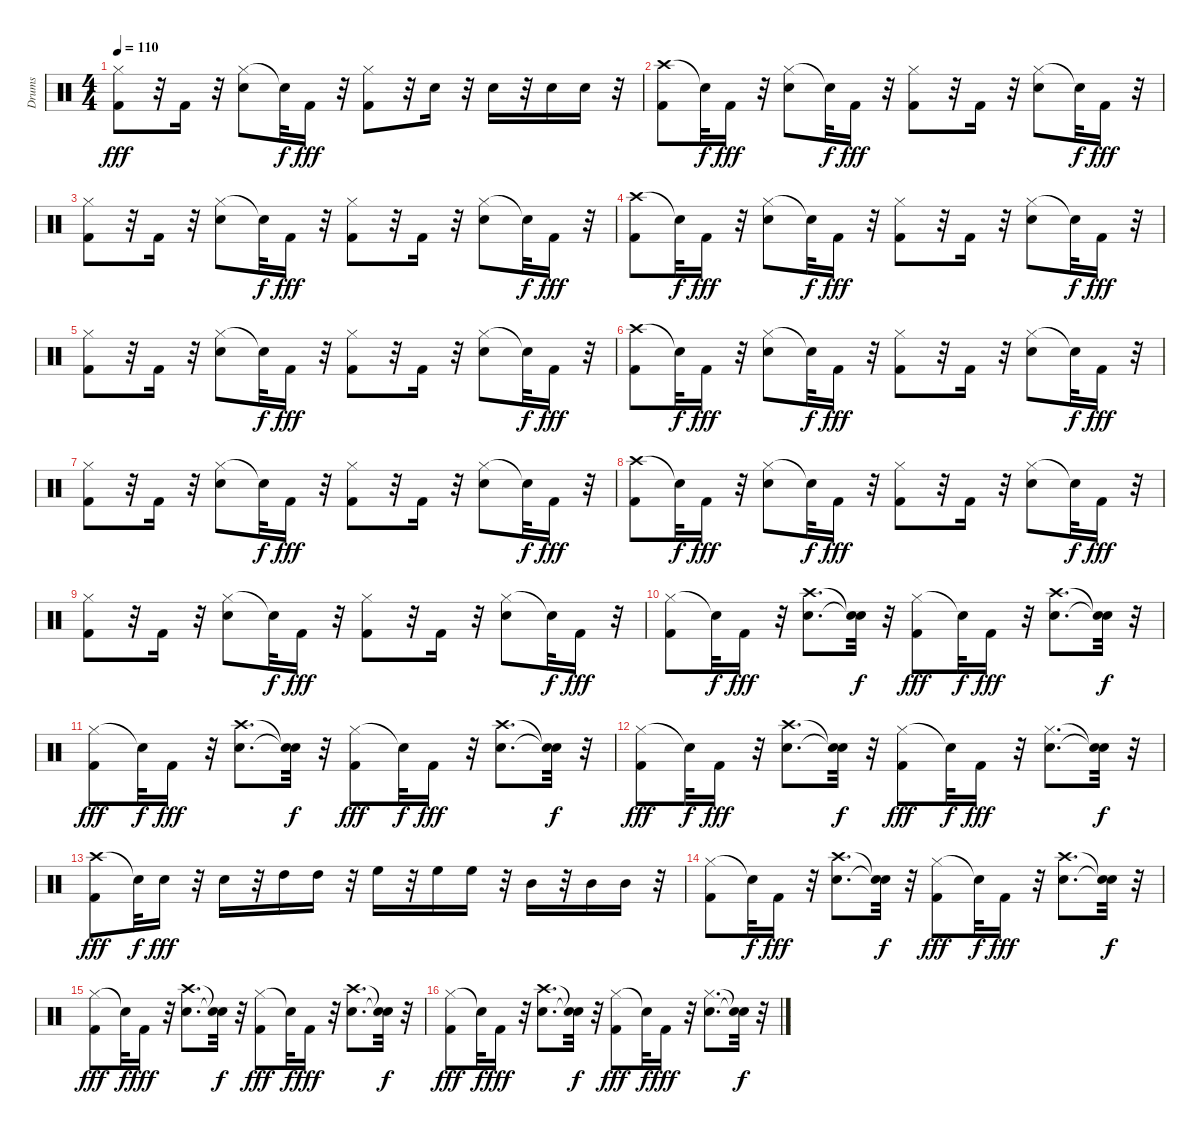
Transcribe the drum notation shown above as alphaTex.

\track ("Drums" "Drums") {instrument percussion}
\staff {score}
\articulation defaults
\ts (4 4)
\tempo 110
\clef neutral
\ks c
("Kick (hit) 2" "Hi-Hat (closed)").8{dy fff} r.32 "Kick (hit) 2".16 r.32 ("Hi-Hat (closed)" "Snare (hit) 2").8 "Snare (hit)"{t}.32{dy f} "Kick (hit) 2".16{dy fff} r.32 ("Kick (hit) 2" "Hi-Hat (closed)").8 r.32 "Snare (hit) 2".16 r.32 "Snare (hit) 2".16 r.32 "Snare (hit) 2".16 "Snare (hit) 2".16 r.32 |
("Crash high (hit)" "Kick (hit) 2").8 "Snare (hit)"{t}.32{dy f} "Kick (hit) 2".16{dy fff} r.32 ("Hi-Hat (closed)" "Snare (hit) 2").8 "Snare (hit)"{t}.32{dy f} "Kick (hit) 2".16{dy fff} r.32 ("Kick (hit) 2" "Hi-Hat (closed)").8 r.32 "Kick (hit) 2".16 r.32 ("Hi-Hat (closed)" "Snare (hit) 2").8 "Snare (hit)"{t}.32{dy f} "Kick (hit) 2".16{dy fff} r.32 |
("Kick (hit) 2" "Hi-Hat (closed)").8 r.32 "Kick (hit) 2".16 r.32 ("Hi-Hat (closed)" "Snare (hit) 2").8 "Snare (hit)"{t}.32{dy f} "Kick (hit) 2".16{dy fff} r.32 ("Kick (hit) 2" "Hi-Hat (closed)").8 r.32 "Kick (hit) 2".16 r.32 ("Hi-Hat (closed)" "Snare (hit) 2").8 "Snare (hit)"{t}.32{dy f} "Kick (hit) 2".16{dy fff} r.32 |
("Crash high (hit)" "Kick (hit) 2").8 "Snare (hit)"{t}.32{dy f} "Kick (hit) 2".16{dy fff} r.32 ("Hi-Hat (closed)" "Snare (hit) 2").8 "Snare (hit)"{t}.32{dy f} "Kick (hit) 2".16{dy fff} r.32 ("Kick (hit) 2" "Hi-Hat (closed)").8 r.32 "Kick (hit) 2".16 r.32 ("Hi-Hat (closed)" "Snare (hit) 2").8 "Snare (hit)"{t}.32{dy f} "Kick (hit) 2".16{dy fff} r.32 |
("Kick (hit) 2" "Hi-Hat (closed)").8 r.32 "Kick (hit) 2".16 r.32 ("Hi-Hat (closed)" "Snare (hit) 2").8 "Snare (hit)"{t}.32{dy f} "Kick (hit) 2".16{dy fff} r.32 ("Kick (hit) 2" "Hi-Hat (closed)").8 r.32 "Kick (hit) 2".16 r.32 ("Hi-Hat (closed)" "Snare (hit) 2").8 "Snare (hit)"{t}.32{dy f} "Kick (hit) 2".16{dy fff} r.32 |
("Crash high (hit)" "Kick (hit) 2").8 "Snare (hit)"{t}.32{dy f} "Kick (hit) 2".16{dy fff} r.32 ("Hi-Hat (closed)" "Snare (hit) 2").8 "Snare (hit)"{t}.32{dy f} "Kick (hit) 2".16{dy fff} r.32 ("Kick (hit) 2" "Hi-Hat (closed)").8 r.32 "Kick (hit) 2".16 r.32 ("Hi-Hat (closed)" "Snare (hit) 2").8 "Snare (hit)"{t}.32{dy f} "Kick (hit) 2".16{dy fff} r.32 |
("Kick (hit) 2" "Hi-Hat (closed)").8 r.32 "Kick (hit) 2".16 r.32 ("Hi-Hat (closed)" "Snare (hit) 2").8 "Snare (hit)"{t}.32{dy f} "Kick (hit) 2".16{dy fff} r.32 ("Kick (hit) 2" "Hi-Hat (closed)").8 r.32 "Kick (hit) 2".16 r.32 ("Hi-Hat (closed)" "Snare (hit) 2").8 "Snare (hit)"{t}.32{dy f} "Kick (hit) 2".16{dy fff} r.32 |
("Crash high (hit)" "Kick (hit) 2").8 "Snare (hit)"{t}.32{dy f} "Kick (hit) 2".16{dy fff} r.32 ("Hi-Hat (closed)" "Snare (hit) 2").8 "Snare (hit)"{t}.32{dy f} "Kick (hit) 2".16{dy fff} r.32 ("Kick (hit) 2" "Hi-Hat (closed)").8 r.32 "Kick (hit) 2".16 r.32 ("Hi-Hat (closed)" "Snare (hit) 2").8 "Snare (hit)"{t}.32{dy f} "Kick (hit) 2".16{dy fff} r.32 |
("Kick (hit) 2" "Hi-Hat (closed)").8 r.32 "Kick (hit) 2".16 r.32 ("Hi-Hat (closed)" "Snare (hit) 2").8 "Snare (hit)"{t}.32{dy f} "Kick (hit) 2".16{dy fff} r.32 ("Kick (hit) 2" "Hi-Hat (closed)").8 r.32 "Kick (hit) 2".16 r.32 ("Hi-Hat (closed)" "Snare (hit) 2").8 "Snare (hit)"{t}.32{dy f} "Kick (hit) 2".16{dy fff} r.32 |
("Hi-Hat (closed)" "Kick (hit) 2").8 "Snare (hit)"{t}.32{dy f} "Kick (hit) 2".16{dy fff} r.32 ("Crash high (hit)" "Snare (hit) 2").8{d} ("Snare (hit)"{t} "Snare (hit)"{t}).32{dy f} r.32 ("Hi-Hat (closed)" "Kick (hit) 2").8{dy fff} "Snare (hit)"{t}.32{dy f} "Kick (hit) 2".16{dy fff} r.32 ("Crash high (hit)" "Snare (hit) 2").8{d} ("Snare (hit)"{t} "Snare (hit)"{t}).32{dy f} r.32 |
("Hi-Hat (closed)" "Kick (hit) 2").8{dy fff} "Snare (hit)"{t}.32{dy f} "Kick (hit) 2".16{dy fff} r.32 ("Crash high (hit)" "Snare (hit) 2").8{d} ("Snare (hit)"{t} "Snare (hit)"{t}).32{dy f} r.32 ("Hi-Hat (closed)" "Kick (hit) 2").8{dy fff} "Snare (hit)"{t}.32{dy f} "Kick (hit) 2".16{dy fff} r.32 ("Crash high (hit)" "Snare (hit) 2").8{d} ("Snare (hit)"{t} "Snare (hit)"{t}).32{dy f} r.32 |
("Hi-Hat (closed)" "Kick (hit) 2").8{dy fff} "Snare (hit)"{t}.32{dy f} "Kick (hit) 2".16{dy fff} r.32 ("Crash high (hit)" "Snare (hit) 2").8{d} ("Snare (hit)"{t} "Snare (hit)"{t}).32{dy f} r.32 ("Hi-Hat (closed)" "Kick (hit) 2").8{dy fff} "Snare (hit)"{t}.32{dy f} "Kick (hit) 2".16{dy fff} r.32 ("Snare (hit) 2" "Hi-Hat (closed)").8{d} ("Snare (hit)"{t} "Snare (hit)"{t}).32{dy f} r.32 |
("Crash high (hit)" "Kick (hit) 2").8{dy fff} "Snare (hit)"{t}.32{dy f} "Snare (hit) 2".16{dy fff} r.32 "Snare (hit) 2".16 r.32 "High Tom (hit)".16 "High Tom (hit)".16 r.32 "High Floor Tom (hit)".16 r.32 "High Floor Tom (hit)".16 "High Floor Tom (hit)".16 r.32 "Mid Tom (hit)".16 r.32 "Mid Tom (hit)".16 "Mid Tom (hit)".16 r.32 |
("Hi-Hat (closed)" "Kick (hit) 2").8 "Snare (hit)"{t}.32{dy f} "Kick (hit) 2".16{dy fff} r.32 ("Crash high (hit)" "Snare (hit) 2").8{d} ("Snare (hit)"{t} "Snare (hit)"{t}).32{dy f} r.32 ("Hi-Hat (closed)" "Kick (hit) 2").8{dy fff} "Snare (hit)"{t}.32{dy f} "Kick (hit) 2".16{dy fff} r.32 ("Crash high (hit)" "Snare (hit) 2").8{d} ("Snare (hit)"{t} "Snare (hit)"{t}).32{dy f} r.32 |
("Hi-Hat (closed)" "Kick (hit) 2").8{dy fff} "Snare (hit)"{t}.32{dy f} "Kick (hit) 2".16{dy fff} r.32 ("Crash high (hit)" "Snare (hit) 2").8{d} ("Snare (hit)"{t} "Snare (hit)"{t}).32{dy f} r.32 ("Hi-Hat (closed)" "Kick (hit) 2").8{dy fff} "Snare (hit)"{t}.32{dy f} "Kick (hit) 2".16{dy fff} r.32 ("Crash high (hit)" "Snare (hit) 2").8{d} ("Snare (hit)"{t} "Snare (hit)"{t}).32{dy f} r.32 |
("Hi-Hat (closed)" "Kick (hit) 2").8{dy fff} "Snare (hit)"{t}.32{dy f} "Kick (hit) 2".16{dy fff} r.32 ("Crash high (hit)" "Snare (hit) 2").8{d} ("Snare (hit)"{t} "Snare (hit)"{t}).32{dy f} r.32 ("Hi-Hat (closed)" "Kick (hit) 2").8{dy fff} "Snare (hit)"{t}.32{dy f} "Kick (hit) 2".16{dy fff} r.32 ("Snare (hit) 2" "Hi-Hat (closed)").8{d} ("Snare (hit)"{t} "Snare (hit)"{t}).32{dy f} r.32
